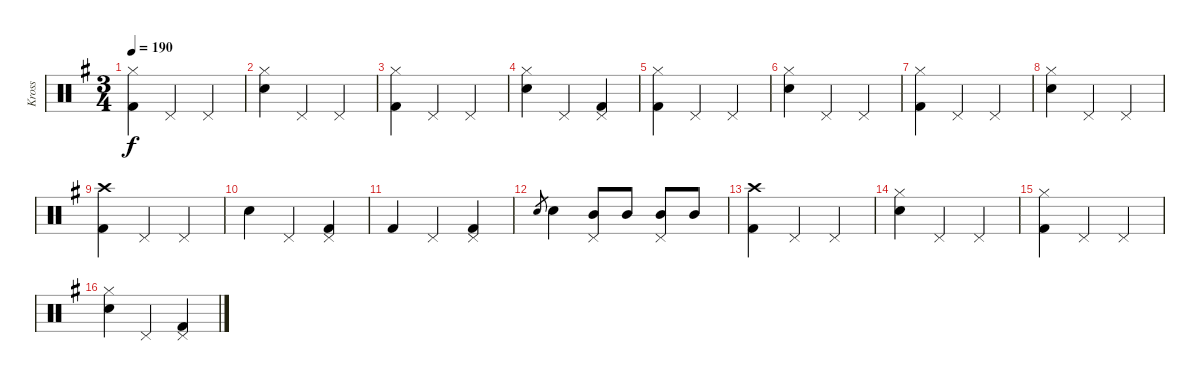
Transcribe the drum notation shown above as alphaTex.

\track ("Kross" "Kross") {instrument percussion}
\staff {score}
\articulation defaults
\ts (3 4)
\tempo 190
\clef neutral
\ks g
("Hi-Hat (closed)" "Kick (hit) 2").4{dy f} "Pedal Hi-Hat (hit)".4 "Pedal Hi-Hat (hit)".4 |
("Hi-Hat (closed)" "Snare (hit) 2").4 "Pedal Hi-Hat (hit)".4 "Pedal Hi-Hat (hit)".4 |
("Hi-Hat (closed)" "Kick (hit) 2").4 "Pedal Hi-Hat (hit)".4 "Pedal Hi-Hat (hit)".4 |
("Hi-Hat (closed)" "Snare (hit) 2").4 "Pedal Hi-Hat (hit)".4 ("Pedal Hi-Hat (hit)" "Kick (hit) 2").4 |
("Hi-Hat (closed)" "Kick (hit) 2").4 "Pedal Hi-Hat (hit)".4 "Pedal Hi-Hat (hit)".4 |
("Hi-Hat (closed)" "Snare (hit) 2").4 "Pedal Hi-Hat (hit)".4 "Pedal Hi-Hat (hit)".4 |
("Hi-Hat (closed)" "Kick (hit) 2").4 "Pedal Hi-Hat (hit)".4 "Pedal Hi-Hat (hit)".4 |
("Hi-Hat (closed)" "Snare (hit) 2").4 "Pedal Hi-Hat (hit)".4 "Pedal Hi-Hat (hit)".4 |
("Crash high (hit)" "Kick (hit) 2").4 "Pedal Hi-Hat (hit)".4 "Pedal Hi-Hat (hit)".4 |
"Snare (hit) 2".4 "Pedal Hi-Hat (hit)".4 ("Pedal Hi-Hat (hit)" "Kick (hit) 2").4 |
"Kick (hit) 2".4 "Pedal Hi-Hat (hit)".4 ("Pedal Hi-Hat (hit)" "Kick (hit) 2").4 |
"Electric Snare (hit)".8{gr} "Electric Snare (hit)".4 ("Pedal Hi-Hat (hit)" "Mid Tom (hit)").8 "Mid Tom (hit)".8 ("Pedal Hi-Hat (hit)" "Mid Tom (hit)").8 "Mid Tom (hit)".8 |
("Crash high (hit)" "Kick (hit) 2").4 "Pedal Hi-Hat (hit)".4 "Pedal Hi-Hat (hit)".4 |
("Hi-Hat (closed)" "Snare (hit) 2").4 "Pedal Hi-Hat (hit)".4 "Pedal Hi-Hat (hit)".4 |
("Hi-Hat (closed)" "Kick (hit) 2").4 "Pedal Hi-Hat (hit)".4 "Pedal Hi-Hat (hit)".4 |
("Hi-Hat (closed)" "Snare (hit) 2").4 "Pedal Hi-Hat (hit)".4 ("Pedal Hi-Hat (hit)" "Kick (hit) 2").4
